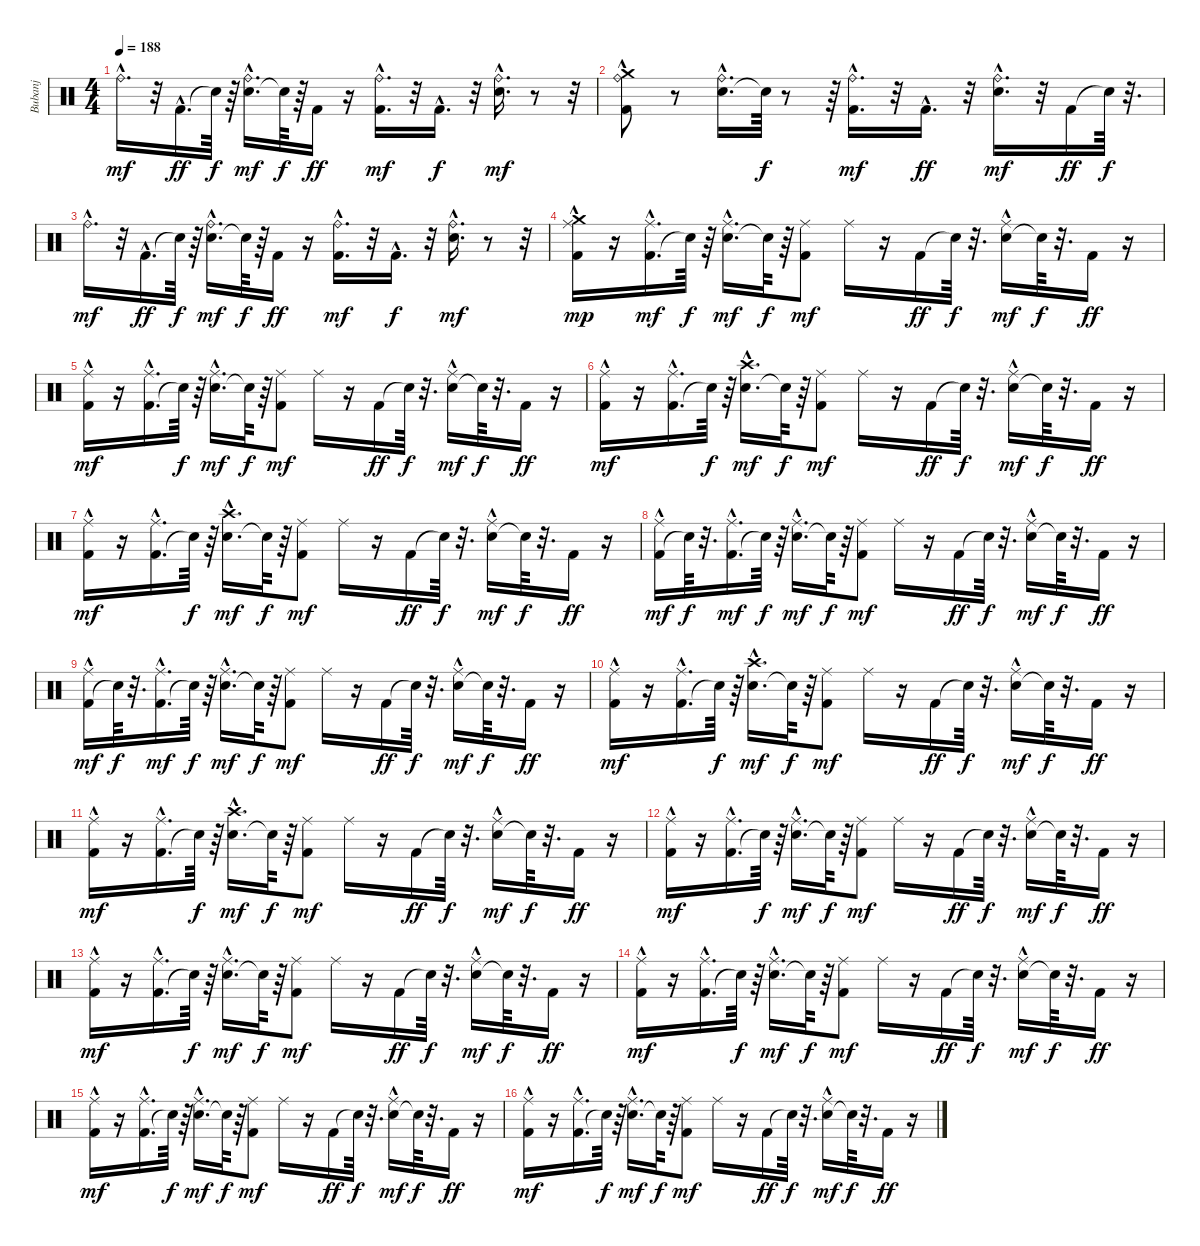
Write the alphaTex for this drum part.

\track ("Bubanj" "Bubanj") {instrument percussion}
\staff {score}
\articulation defaults
\ts (4 4)
\tempo 188
\clef neutral
\ks c "Ride (bell)"{hac}.16{d dy mf}
r.32 "Kick (hit) 2"{hac}.16{d dy ff} "Snare (hit)"{t}.64{dy f} r.64 ("Electric Snare (hit)"{hac} "Ride (bell)"{hac}).16{d dy mf} "Snare (hit)"{t}.64{dy f} r.64 "Kick (hit) 2".16{dy ff} r.16 ("Kick (hit) 2" "Ride (bell)"{hac}).16{d dy mf} r.32 "Kick (hit) 2"{hac}.16{d dy f} r.32 ("Electric Snare (hit)" "Ride (bell)"{hac}).16{d dy mf} r.8 r.32 |
("Kick (hit) 2" "Ride (bell)"{hac} "Crash medium (hit)"{hac}).8 r.8 ("Electric Snare (hit)"{hac} "Ride (bell)"{hac}).16{d} "Snare (hit)"{t}.64{dy f} r.8 r.64 ("Kick (hit) 2" "Ride (bell)"{hac}).16{d dy mf} r.32 "Kick (hit) 2"{hac}.16{d dy ff} r.32 ("Electric Snare (hit)" "Ride (bell)"{hac}).16{d dy mf} r.32 "Kick (hit) 2".16{dy ff} "Snare (hit)"{t}.64{dy f} r.32{d} |
"Ride (bell)"{hac}.16{d dy mf} r.32 "Kick (hit) 2"{hac}.16{d dy ff} "Snare (hit)"{t}.64{dy f} r.64 ("Electric Snare (hit)"{hac} "Ride (bell)"{hac}).16{d dy mf} "Snare (hit)"{t}.64{dy f} r.64 "Kick (hit) 2".16{dy ff} r.16 ("Kick (hit) 2" "Ride (bell)"{hac}).16{d dy mf} r.32 "Kick (hit) 2"{hac}.16{d dy f} r.32 ("Electric Snare (hit)" "Ride (bell)"{hac}).16{d dy mf} r.8 r.32 |
("Kick (hit) 2" "Ride (middle)"{hac} "Crash medium (hit)").16{dy mp} r.16 ("Kick (hit) 2"{hac} "Ride (middle)").16{d dy mf} "Snare (hit)"{t}.64{dy f} r.64 ("Electric Snare (hit)"{hac} "Ride (middle)").16{d dy mf} "Snare (hit)"{t}.64{dy f} r.64 ("Kick (hit) 2" "Ride (middle)").8{dy mf} "Ride (middle)".16 r.16 "Kick (hit) 2".16{dy ff} "Snare (hit)"{t}.64{dy f} r.32{d} ("Electric Snare (hit)" "Ride (middle)"{hac}).16{dy mf} "Snare (hit)"{t}.64{dy f} r.32{d} "Kick (hit) 2".16{dy ff} r.16 |
("Kick (hit) 2" "Ride (middle)"{hac}).16{dy mf} r.16 ("Kick (hit) 2"{hac} "Ride (middle)").16{d} "Snare (hit)"{t}.64{dy f} r.64 ("Electric Snare (hit)"{hac} "Ride (middle)").16{d dy mf} "Snare (hit)"{t}.64{dy f} r.64 ("Kick (hit) 2" "Ride (middle)").8{dy mf} "Ride (middle)".16 r.16 "Kick (hit) 2".16{dy ff} "Snare (hit)"{t}.64{dy f} r.32{d} ("Electric Snare (hit)" "Ride (middle)"{hac}).16{dy mf} "Snare (hit)"{t}.64{dy f} r.32{d} "Kick (hit) 2".16{dy ff} r.16 |
("Kick (hit) 2" "Ride (middle)"{hac}).16{dy mf} r.16 ("Kick (hit) 2"{hac} "Ride (middle)").16{d} "Snare (hit)"{t}.64{dy f} r.64 ("Electric Snare (hit)"{hac} "Crash high (hit)").16{d dy mf} "Snare (hit)"{t}.64{dy f} r.64 ("Kick (hit) 2" "Ride (middle)").8{dy mf} "Ride (middle)".16 r.16 "Kick (hit) 2".16{dy ff} "Snare (hit)"{t}.64{dy f} r.32{d} ("Electric Snare (hit)" "Ride (middle)"{hac}).16{dy mf} "Snare (hit)"{t}.64{dy f} r.32{d} "Kick (hit) 2".16{dy ff} r.16 |
("Kick (hit) 2" "Ride (middle)"{hac}).16{dy mf} r.16 ("Kick (hit) 2"{hac} "Ride (middle)").16{d} "Snare (hit)"{t}.64{dy f} r.64 ("Electric Snare (hit)"{hac} "Crash high (hit)").16{d dy mf} "Snare (hit)"{t}.64{dy f} r.64 ("Kick (hit) 2" "Ride (middle)").8{dy mf} "Ride (middle)".16 r.16 "Kick (hit) 2".16{dy ff} "Snare (hit)"{t}.64{dy f} r.32{d} ("Electric Snare (hit)" "Ride (middle)"{hac}).16{dy mf} "Snare (hit)"{t}.64{dy f} r.32{d} "Kick (hit) 2".16{dy ff} r.16 |
("Kick (hit) 2" "Ride (middle)"{hac}).16{dy mf} "Snare (hit)"{t}.64{dy f} r.32{d} ("Kick (hit) 2"{hac} "Ride (middle)").16{d dy mf} "Snare (hit)"{t}.64{dy f} r.64 ("Electric Snare (hit)"{hac} "Ride (middle)").16{d dy mf} "Snare (hit)"{t}.64{dy f} r.64 ("Kick (hit) 2" "Ride (middle)").8{dy mf} "Ride (middle)".16 r.16 "Kick (hit) 2".16{dy ff} "Snare (hit)"{t}.64{dy f} r.32{d} ("Electric Snare (hit)" "Ride (middle)"{hac}).16{dy mf} "Snare (hit)"{t}.64{dy f} r.32{d} "Kick (hit) 2".16{dy ff} r.16 |
("Kick (hit) 2" "Ride (middle)"{hac}).16{dy mf} "Snare (hit)"{t}.64{dy f} r.32{d} ("Kick (hit) 2"{hac} "Ride (middle)").16{d dy mf} "Snare (hit)"{t}.64{dy f} r.64 ("Electric Snare (hit)"{hac} "Ride (middle)").16{d dy mf} "Snare (hit)"{t}.64{dy f} r.64 ("Kick (hit) 2" "Ride (middle)").8{dy mf} "Ride (middle)".16 r.16 "Kick (hit) 2".16{dy ff} "Snare (hit)"{t}.64{dy f} r.32{d} ("Electric Snare (hit)" "Ride (middle)"{hac}).16{dy mf} "Snare (hit)"{t}.64{dy f} r.32{d} "Kick (hit) 2".16{dy ff} r.16 |
("Kick (hit) 2" "Ride (middle)"{hac}).16{dy mf} r.16 ("Kick (hit) 2"{hac} "Ride (middle)").16{d} "Snare (hit)"{t}.64{dy f} r.64 ("Electric Snare (hit)"{hac} "Crash high (hit)").16{d dy mf} "Snare (hit)"{t}.64{dy f} r.64 ("Kick (hit) 2" "Ride (middle)").8{dy mf} "Ride (middle)".16 r.16 "Kick (hit) 2".16{dy ff} "Snare (hit)"{t}.64{dy f} r.32{d} ("Electric Snare (hit)" "Ride (middle)"{hac}).16{dy mf} "Snare (hit)"{t}.64{dy f} r.32{d} "Kick (hit) 2".16{dy ff} r.16 |
("Kick (hit) 2" "Ride (middle)"{hac}).16{dy mf} r.16 ("Kick (hit) 2"{hac} "Ride (middle)").16{d} "Snare (hit)"{t}.64{dy f} r.64 ("Electric Snare (hit)"{hac} "Crash high (hit)").16{d dy mf} "Snare (hit)"{t}.64{dy f} r.64 ("Kick (hit) 2" "Ride (middle)").8{dy mf} "Ride (middle)".16 r.16 "Kick (hit) 2".16{dy ff} "Snare (hit)"{t}.64{dy f} r.32{d} ("Electric Snare (hit)" "Ride (middle)"{hac}).16{dy mf} "Snare (hit)"{t}.64{dy f} r.32{d} "Kick (hit) 2".16{dy ff} r.16 |
("Kick (hit) 2" "Ride (middle)"{hac}).16{dy mf} r.16 ("Kick (hit) 2"{hac} "Ride (middle)").16{d} "Snare (hit)"{t}.64{dy f} r.64 ("Electric Snare (hit)"{hac} "Ride (middle)").16{d dy mf} "Snare (hit)"{t}.64{dy f} r.64 ("Kick (hit) 2" "Ride (middle)").8{dy mf} "Ride (middle)".16 r.16 "Kick (hit) 2".16{dy ff} "Snare (hit)"{t}.64{dy f} r.32{d} ("Electric Snare (hit)" "Ride (middle)"{hac}).16{dy mf} "Snare (hit)"{t}.64{dy f} r.32{d} "Kick (hit) 2".16{dy ff} r.16 |
("Kick (hit) 2" "Ride (middle)"{hac}).16{dy mf} r.16 ("Kick (hit) 2"{hac} "Ride (middle)").16{d} "Snare (hit)"{t}.64{dy f} r.64 ("Electric Snare (hit)"{hac} "Ride (middle)").16{d dy mf} "Snare (hit)"{t}.64{dy f} r.64 ("Kick (hit) 2" "Ride (middle)").8{dy mf} "Ride (middle)".16 r.16 "Kick (hit) 2".16{dy ff} "Snare (hit)"{t}.64{dy f} r.32{d} ("Electric Snare (hit)" "Ride (middle)"{hac}).16{dy mf} "Snare (hit)"{t}.64{dy f} r.32{d} "Kick (hit) 2".16{dy ff} r.16 |
("Kick (hit) 2" "Ride (middle)"{hac}).16{dy mf} r.16 ("Kick (hit) 2"{hac} "Ride (middle)").16{d} "Snare (hit)"{t}.64{dy f} r.64 ("Electric Snare (hit)"{hac} "Ride (middle)").16{d dy mf} "Snare (hit)"{t}.64{dy f} r.64 ("Kick (hit) 2" "Ride (middle)").8{dy mf} "Ride (middle)".16 r.16 "Kick (hit) 2".16{dy ff} "Snare (hit)"{t}.64{dy f} r.32{d} ("Electric Snare (hit)" "Ride (middle)"{hac}).16{dy mf} "Snare (hit)"{t}.64{dy f} r.32{d} "Kick (hit) 2".16{dy ff} r.16 |
("Kick (hit) 2" "Ride (middle)"{hac}).16{dy mf} r.16 ("Kick (hit) 2"{hac} "Ride (middle)").16{d} "Snare (hit)"{t}.64{dy f} r.64 ("Electric Snare (hit)"{hac} "Ride (middle)").16{d dy mf} "Snare (hit)"{t}.64{dy f} r.64 ("Kick (hit) 2" "Ride (middle)").8{dy mf} "Ride (middle)".16 r.16 "Kick (hit) 2".16{dy ff} "Snare (hit)"{t}.64{dy f} r.32{d} ("Electric Snare (hit)" "Ride (middle)"{hac}).16{dy mf} "Snare (hit)"{t}.64{dy f} r.32{d} "Kick (hit) 2".16{dy ff} r.16 |
("Kick (hit) 2" "Ride (middle)"{hac}).16{dy mf} r.16 ("Kick (hit) 2"{hac} "Ride (middle)").16{d} "Snare (hit)"{t}.64{dy f} r.64 ("Electric Snare (hit)"{hac} "Ride (middle)").16{d dy mf} "Snare (hit)"{t}.64{dy f} r.64 ("Kick (hit) 2" "Ride (middle)").8{dy mf} "Ride (middle)".16 r.16 "Kick (hit) 2".16{dy ff} "Snare (hit)"{t}.64{dy f} r.32{d} ("Electric Snare (hit)" "Ride (middle)"{hac}).16{dy mf} "Snare (hit)"{t}.64{dy f} r.32{d} "Kick (hit) 2".16{dy ff} r.16
